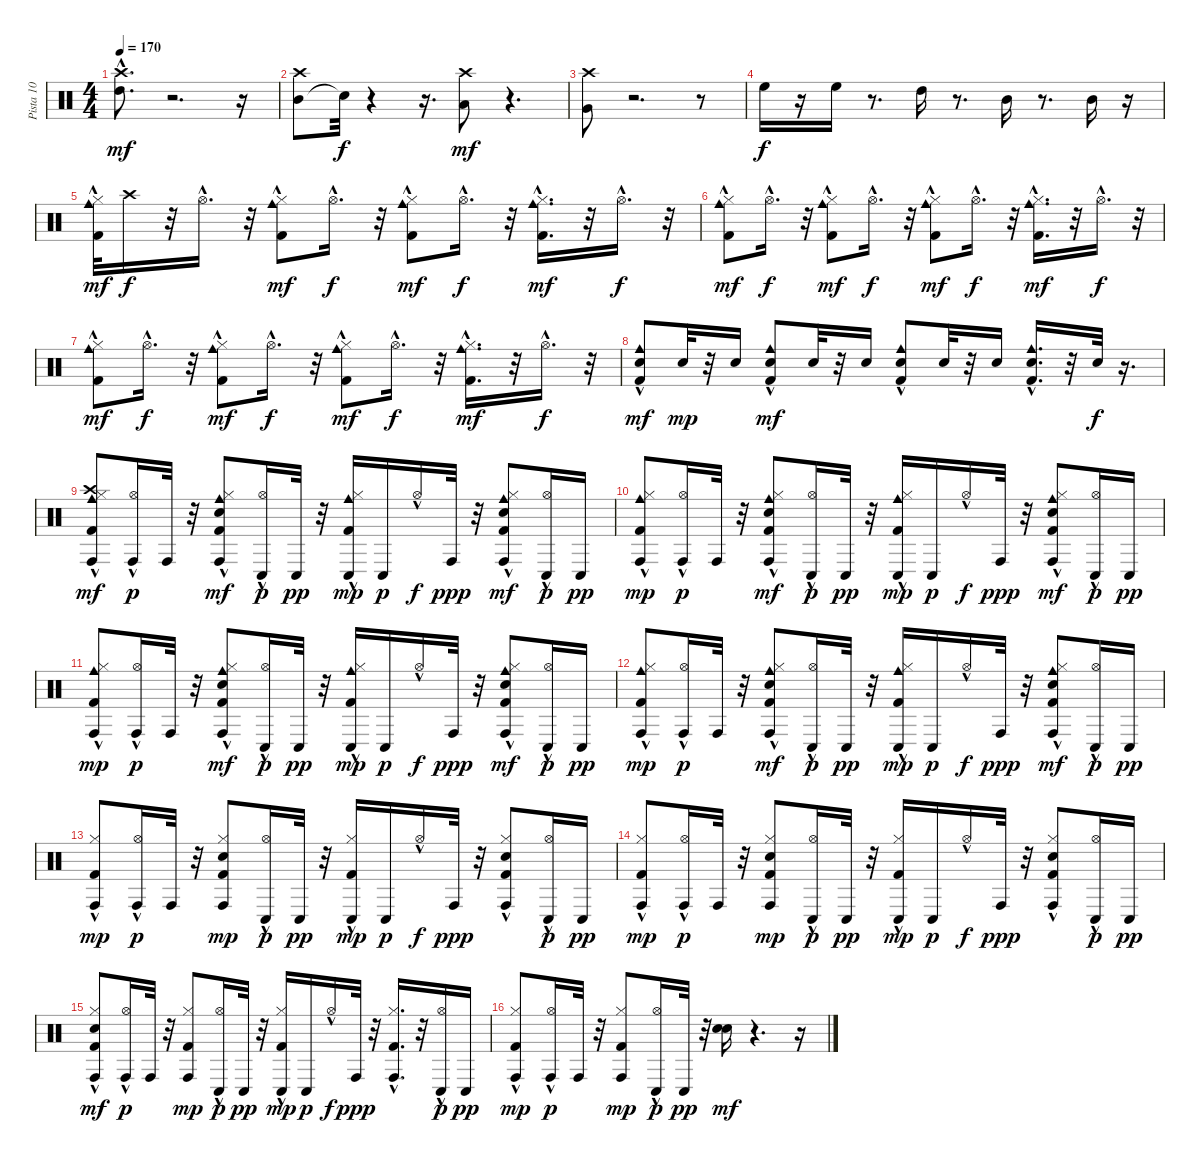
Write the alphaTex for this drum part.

\track ("Pista 10" "Pista 10") {instrument percussion}
\staff {score}
\articulation defaults
\ts (4 4)
\tempo 170
\clef neutral
\ks c
("High Tom (hit)"{hac} "Crash high (hit)").8{d dy mf} r.2{d} r.16 |
("Mid Tom (hit)" "Crash high (hit)").8 "Snare (hit)"{t}.32{dy f} r.4 r.16{d} ("Low Tom (hit)" "Crash high (hit)").8{dy mf} r.4{d} |
("Very Low Tom (hit)" "Crash high (hit)").8 r.2{d} r.8 |
"High Floor Tom (hit)".16{dy f} r.16 "High Floor Tom (hit)".16 r.8{d} "High Tom (hit)".16 r.8{d} "Mid Tom (hit)".16 r.8{d} "Mid Tom (hit)".16 r.16 |
("Kick (hit) 2" "Hi-Hat (closed)"{hac} "Cowbell medium (hit)"{hac}).32{dy mf} "Crash high (hit)".16{dy f} r.32 "Hi-Hat (open)"{hac}.16{d} r.32 ("Kick (hit) 2" "Hi-Hat (closed)" "Cowbell medium (hit)"{hac}).8{dy mf} "Hi-Hat (open)"{hac}.16{d dy f} r.32 ("Kick (hit) 2" "Hi-Hat (closed)"{hac} "Cowbell medium (hit)"{hac}).8{dy mf} "Hi-Hat (open)"{hac}.16{d dy f} r.32 ("Kick (hit) 2" "Hi-Hat (closed)"{hac} "Cowbell medium (hit)"{hac}).16{d dy mf} r.32 "Hi-Hat (open)"{hac}.16{d dy f} r.32 |
("Kick (hit) 2" "Hi-Hat (closed)"{hac} "Cowbell medium (hit)"{hac}).8{dy mf} "Hi-Hat (open)"{hac}.16{d dy f} r.32 ("Kick (hit) 2" "Hi-Hat (closed)" "Cowbell medium (hit)"{hac}).8{dy mf} "Hi-Hat (open)"{hac}.16{d dy f} r.32 ("Kick (hit) 2" "Hi-Hat (closed)"{hac} "Cowbell medium (hit)"{hac}).8{dy mf} "Hi-Hat (open)"{hac}.16{d dy f} r.32 ("Kick (hit) 2" "Hi-Hat (closed)"{hac} "Cowbell medium (hit)"{hac}).16{d dy mf} r.32 "Hi-Hat (open)"{hac}.16{d dy f} r.32 |
("Kick (hit) 2" "Hi-Hat (closed)"{hac} "Cowbell medium (hit)"{hac}).8{dy mf} "Hi-Hat (open)"{hac}.16{d dy f} r.32 ("Kick (hit) 2" "Hi-Hat (closed)" "Cowbell medium (hit)"{hac}).8{dy mf} "Hi-Hat (open)"{hac}.16{d dy f} r.32 ("Kick (hit) 2" "Hi-Hat (closed)"{hac} "Cowbell medium (hit)"{hac}).8{dy mf} "Hi-Hat (open)"{hac}.16{d dy f} r.32 ("Kick (hit) 2" "Hi-Hat (closed)"{hac} "Cowbell medium (hit)"{hac}).16{d dy mf} r.32 "Hi-Hat (open)"{hac}.16{d dy f} r.32 |
("Kick (hit) 2" "Cowbell medium (hit)"{hac} "Electric Snare (hit)").8{dy mf} "Snare (hit) 2".32{dy mp} r.32 "Snare (hit) 2".16 ("Kick (hit) 2" "Cowbell medium (hit)"{hac} "Electric Snare (hit)").8{dy mf} "Snare (hit) 2".32 r.32 "Snare (hit) 2".16 ("Kick (hit) 2" "Cowbell medium (hit)"{hac} "Electric Snare (hit)").8 "Snare (hit) 2".32 r.32 "Snare (hit) 2".16 ("Kick (hit) 2" "Cowbell medium (hit)"{hac} "Electric Snare (hit)").16{d} r.32 "Snare (hit) 2".32{dy f} r.16{d} |
("Kick (hit) 2" "Hi-Hat (closed)"{hac} "Conga high (hit)" "Cowbell medium (hit)"{hac} "Crash high (hit)").8{dy mf} ("Hi-Hat (open)"{hac} "Conga high (hit)").16{dy p} "Conga high (hit)".32 r.32 ("Kick (hit) 2" "Electric Snare (hit)" "Hi-Hat (closed)" "Conga high (hit)" "Cowbell medium (hit)"{hac}).8{dy mf} ("Hi-Hat (open)"{hac} "Conga low (hit)").16{dy p} "Conga low (hit)".32{dy pp} r.32 ("Kick (hit) 2" "Hi-Hat (closed)"{hac} "Conga low (hit)" "Cowbell medium (hit)"{hac}).16{dy mp} "Conga low (hit)".16{dy p} "Hi-Hat (open)"{hac}.16{dy f} "Conga high (hit)".32{dy ppp} r.32 ("Kick (hit) 2" "Electric Snare (hit)" "Hi-Hat (closed)"{hac} "Conga high (hit)" "Cowbell medium (hit)"{hac}).8{dy mf} ("Hi-Hat (open)"{hac} "Conga low (hit)").16{dy p} "Conga low (hit)".16{dy pp} |
("Kick (hit) 2" "Hi-Hat (closed)"{hac} "Conga high (hit)" "Cowbell medium (hit)"{hac}).8{dy mp} ("Hi-Hat (open)"{hac} "Conga high (hit)").16{dy p} "Conga high (hit)".32 r.32 ("Kick (hit) 2" "Electric Snare (hit)" "Hi-Hat (closed)" "Conga high (hit)" "Cowbell medium (hit)"{hac}).8{dy mf} ("Hi-Hat (open)"{hac} "Conga low (hit)").16{dy p} "Conga low (hit)".32{dy pp} r.32 ("Kick (hit) 2" "Hi-Hat (closed)"{hac} "Conga low (hit)" "Cowbell medium (hit)"{hac}).16{dy mp} "Conga low (hit)".16{dy p} "Hi-Hat (open)"{hac}.16{dy f} "Conga high (hit)".32{dy ppp} r.32 ("Kick (hit) 2" "Electric Snare (hit)" "Hi-Hat (closed)"{hac} "Conga high (hit)" "Cowbell medium (hit)"{hac}).8{dy mf} ("Hi-Hat (open)"{hac} "Conga low (hit)").16{dy p} "Conga low (hit)".16{dy pp} |
("Kick (hit) 2" "Hi-Hat (closed)"{hac} "Conga high (hit)" "Cowbell medium (hit)"{hac}).8{dy mp} ("Hi-Hat (open)"{hac} "Conga high (hit)").16{dy p} "Conga high (hit)".32 r.32 ("Kick (hit) 2" "Electric Snare (hit)" "Hi-Hat (closed)" "Conga high (hit)" "Cowbell medium (hit)"{hac}).8{dy mf} ("Hi-Hat (open)"{hac} "Conga low (hit)").16{dy p} "Conga low (hit)".32{dy pp} r.32 ("Kick (hit) 2" "Hi-Hat (closed)"{hac} "Conga low (hit)" "Cowbell medium (hit)"{hac}).16{dy mp} "Conga low (hit)".16{dy p} "Hi-Hat (open)"{hac}.16{dy f} "Conga high (hit)".32{dy ppp} r.32 ("Kick (hit) 2" "Electric Snare (hit)" "Hi-Hat (closed)"{hac} "Conga high (hit)" "Cowbell medium (hit)"{hac}).8{dy mf} ("Hi-Hat (open)"{hac} "Conga low (hit)").16{dy p} "Conga low (hit)".16{dy pp} |
("Kick (hit) 2" "Hi-Hat (closed)"{hac} "Conga high (hit)" "Cowbell medium (hit)"{hac}).8{dy mp} ("Hi-Hat (open)"{hac} "Conga high (hit)").16{dy p} "Conga high (hit)".32 r.32 ("Kick (hit) 2" "Electric Snare (hit)" "Hi-Hat (closed)" "Conga high (hit)" "Cowbell medium (hit)"{hac}).8{dy mf} ("Hi-Hat (open)"{hac} "Conga low (hit)").16{dy p} "Conga low (hit)".32{dy pp} r.32 ("Kick (hit) 2" "Hi-Hat (closed)"{hac} "Conga low (hit)" "Cowbell medium (hit)"{hac}).16{dy mp} "Conga low (hit)".16{dy p} "Hi-Hat (open)"{hac}.16{dy f} "Conga high (hit)".32{dy ppp} r.32 ("Kick (hit) 2" "Electric Snare (hit)" "Hi-Hat (closed)"{hac} "Conga high (hit)" "Cowbell medium (hit)"{hac}).8{dy mf} ("Hi-Hat (open)"{hac} "Conga low (hit)").16{dy p} "Conga low (hit)".16{dy pp} |
("Kick (hit) 2" "Hi-Hat (closed)"{hac} "Conga high (hit)").8{dy mp} ("Hi-Hat (open)"{hac} "Conga high (hit)").16{dy p} "Conga high (hit)".32 r.32 ("Kick (hit) 2" "Electric Snare (hit)" "Hi-Hat (closed)" "Conga high (hit)").8{dy mp} ("Hi-Hat (open)"{hac} "Conga low (hit)").16{dy p} "Conga low (hit)".32{dy pp} r.32 ("Kick (hit) 2" "Hi-Hat (closed)"{hac} "Conga low (hit)").16{dy mp} "Conga low (hit)".16{dy p} "Hi-Hat (open)"{hac}.16{dy f} "Conga high (hit)".32{dy ppp} r.32 ("Kick (hit) 2" "Electric Snare (hit)" "Hi-Hat (closed)"{hac} "Conga high (hit)").8 ("Hi-Hat (open)"{hac} "Conga low (hit)").16{dy p} "Conga low (hit)".16{dy pp} |
("Kick (hit) 2" "Hi-Hat (closed)"{hac} "Conga high (hit)").8{dy mp} ("Hi-Hat (open)"{hac} "Conga high (hit)").16{dy p} "Conga high (hit)".32 r.32 ("Kick (hit) 2" "Electric Snare (hit)" "Hi-Hat (closed)" "Conga high (hit)").8{dy mp} ("Hi-Hat (open)"{hac} "Conga low (hit)").16{dy p} "Conga low (hit)".32{dy pp} r.32 ("Kick (hit) 2" "Hi-Hat (closed)"{hac} "Conga low (hit)").16{dy mp} "Conga low (hit)".16{dy p} "Hi-Hat (open)"{hac}.16{dy f} "Conga high (hit)".32{dy ppp} r.32 ("Kick (hit) 2" "Electric Snare (hit)" "Hi-Hat (closed)"{hac} "Conga high (hit)").8 ("Hi-Hat (open)"{hac} "Conga low (hit)").16{dy p} "Conga low (hit)".16{dy pp} |
("Kick (hit) 2" "Hi-Hat (closed)"{hac} "Conga high (hit)" "Snare (hit) 2").8{dy mf} ("Hi-Hat (open)"{hac} "Conga high (hit)").16{dy p} "Conga high (hit)".32 r.32 ("Kick (hit) 2" "Hi-Hat (closed)" "Conga high (hit)").8{dy mp} ("Hi-Hat (open)"{hac} "Conga low (hit)").16{dy p} "Conga low (hit)".32{dy pp} r.32 ("Kick (hit) 2" "Hi-Hat (closed)"{hac} "Conga low (hit)").16{dy mp} "Conga low (hit)".16{dy p} "Hi-Hat (open)"{hac}.16{dy f} "Conga high (hit)".32{dy ppp} r.32 ("Kick (hit) 2" "Hi-Hat (closed)"{hac} "Conga high (hit)").16{d} r.32 ("Hi-Hat (open)"{hac} "Conga low (hit)").16{dy p} "Conga low (hit)".16{dy pp} |
("Kick (hit) 2" "Hi-Hat (closed)"{hac} "Conga high (hit)").8{dy mp} ("Hi-Hat (open)"{hac} "Conga high (hit)").16{dy p} "Conga high (hit)".32 r.32 ("Kick (hit) 2" "Hi-Hat (closed)" "Conga high (hit)").8{dy mp} ("Hi-Hat (open)"{hac} "Conga low (hit)").16{dy p} "Conga low (hit)".32{dy pp} r.32 ("Electric Snare (hit)" "Snare (hit) 2").16{dy mf} r.4{d} r.16
